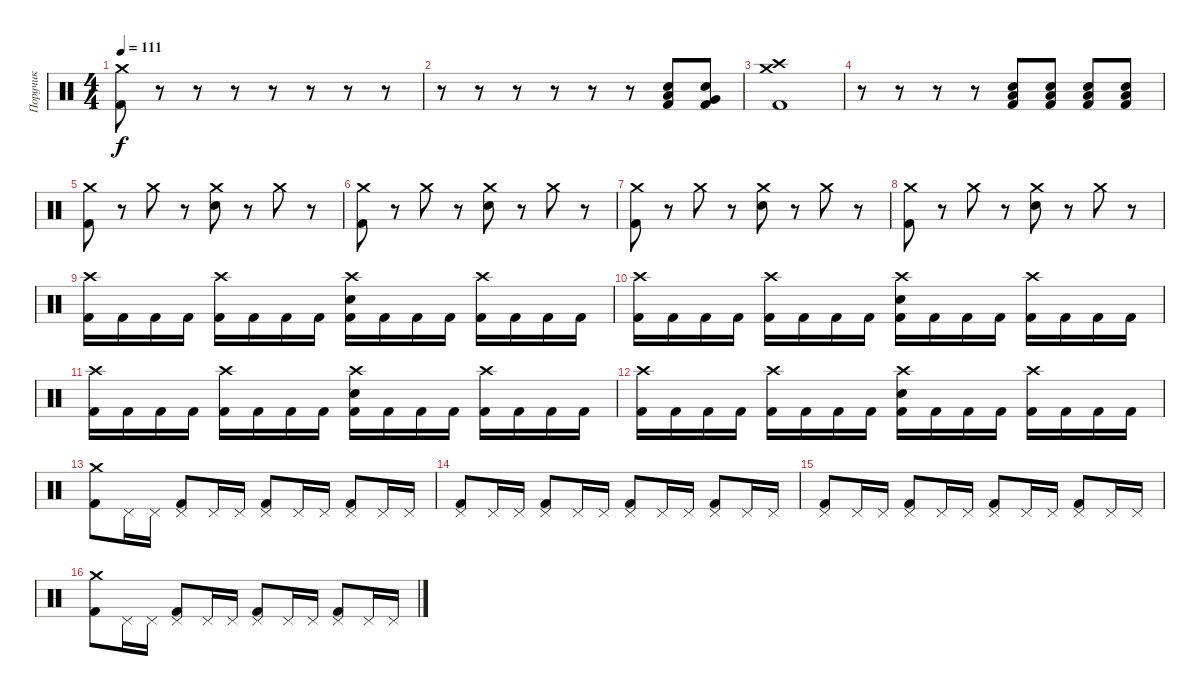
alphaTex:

\track ("Поручик" "Поручик") {instrument percussion}
\staff {score}
\articulation defaults
\ts (4 4)
\tempo 111
\clef neutral
\ks c
("Crash medium (hit)" "Kick (hit) 2").8{dy f} r.8 r.8 r.8 r.8 r.8 r.8 r.8 |
r.8 r.8 r.8 r.8 r.8 r.8 ("Electric Snare (hit)" "Low Tom (hit)" "Kick (hit) 2").8 ("Electric Snare (hit)" "Very Low Tom (hit)" "Kick (hit) 2").8 |
("Crash medium (hit)" "Crash high (hit)" "Kick (hit) 2").1 |
r.8 r.8 r.8 r.8 ("Electric Snare (hit)" "Low Tom (hit)" "Kick (hit) 2").8 ("Electric Snare (hit)" "Low Tom (hit)" "Kick (hit) 2").8 ("Electric Snare (hit)" "Low Tom (hit)" "Kick (hit) 2").8 ("Electric Snare (hit)" "Low Tom (hit)" "Kick (hit) 2").8 |
("Crash medium (hit)" "Kick (hit) 2").8 r.8 "Crash medium (hit)".8 r.8 ("Crash medium (hit)" "Electric Snare (hit)").8 r.8 "Crash medium (hit)".8 r.8 |
("Crash medium (hit)" "Kick (hit) 2").8 r.8 "Crash medium (hit)".8 r.8 ("Crash medium (hit)" "Electric Snare (hit)").8 r.8 "Crash medium (hit)".8 r.8 |
("Crash medium (hit)" "Kick (hit) 2").8 r.8 "Crash medium (hit)".8 r.8 ("Crash medium (hit)" "Electric Snare (hit)").8 r.8 "Crash medium (hit)".8 r.8 |
("Crash medium (hit)" "Kick (hit) 2").8 r.8 "Crash medium (hit)".8 r.8 ("Crash medium (hit)" "Electric Snare (hit)").8 r.8 "Crash medium (hit)".8 r.8 |
("Crash high (hit)" "Kick (hit) 2").16 "Kick (hit) 2".16 "Kick (hit) 2".16 "Kick (hit) 2".16 ("Crash high (hit)" "Kick (hit) 2").16 "Kick (hit) 2".16 "Kick (hit) 2".16 "Kick (hit) 2".16 ("Crash high (hit)" "Electric Snare (hit)" "Kick (hit) 2").16 "Kick (hit) 2".16 "Kick (hit) 2".16 "Kick (hit) 2".16 ("Crash high (hit)" "Kick (hit) 2").16 "Kick (hit) 2".16 "Kick (hit) 2".16 "Kick (hit) 2".16 |
("Crash high (hit)" "Kick (hit) 2").16 "Kick (hit) 2".16 "Kick (hit) 2".16 "Kick (hit) 2".16 ("Crash high (hit)" "Kick (hit) 2").16 "Kick (hit) 2".16 "Kick (hit) 2".16 "Kick (hit) 2".16 ("Crash high (hit)" "Electric Snare (hit)" "Kick (hit) 2").16 "Kick (hit) 2".16 "Kick (hit) 2".16 "Kick (hit) 2".16 ("Crash high (hit)" "Kick (hit) 2").16 "Kick (hit) 2".16 "Kick (hit) 2".16 "Kick (hit) 2".16 |
("Crash high (hit)" "Kick (hit) 2").16 "Kick (hit) 2".16 "Kick (hit) 2".16 "Kick (hit) 2".16 ("Crash high (hit)" "Kick (hit) 2").16 "Kick (hit) 2".16 "Kick (hit) 2".16 "Kick (hit) 2".16 ("Crash high (hit)" "Electric Snare (hit)" "Kick (hit) 2").16 "Kick (hit) 2".16 "Kick (hit) 2".16 "Kick (hit) 2".16 ("Crash high (hit)" "Kick (hit) 2").16 "Kick (hit) 2".16 "Kick (hit) 2".16 "Kick (hit) 2".16 |
("Crash high (hit)" "Kick (hit) 2").16 "Kick (hit) 2".16 "Kick (hit) 2".16 "Kick (hit) 2".16 ("Crash high (hit)" "Kick (hit) 2").16 "Kick (hit) 2".16 "Kick (hit) 2".16 "Kick (hit) 2".16 ("Crash high (hit)" "Electric Snare (hit)" "Kick (hit) 2").16 "Kick (hit) 2".16 "Kick (hit) 2".16 "Kick (hit) 2".16 ("Crash high (hit)" "Kick (hit) 2").16 "Kick (hit) 2".16 "Kick (hit) 2".16 "Kick (hit) 2".16 |
("Crash medium (hit)" "Kick (hit) 2").8 "Pedal Hi-Hat (hit)".16 "Pedal Hi-Hat (hit)".16 ("Pedal Hi-Hat (hit)" "Kick (hit) 2").8 "Pedal Hi-Hat (hit)".16 "Pedal Hi-Hat (hit)".16 ("Pedal Hi-Hat (hit)" "Kick (hit) 2").8 "Pedal Hi-Hat (hit)".16 "Pedal Hi-Hat (hit)".16 ("Pedal Hi-Hat (hit)" "Kick (hit) 2").8 "Pedal Hi-Hat (hit)".16 "Pedal Hi-Hat (hit)".16 |
("Pedal Hi-Hat (hit)" "Kick (hit) 2").8 "Pedal Hi-Hat (hit)".16 "Pedal Hi-Hat (hit)".16 ("Pedal Hi-Hat (hit)" "Kick (hit) 2").8 "Pedal Hi-Hat (hit)".16 "Pedal Hi-Hat (hit)".16 ("Pedal Hi-Hat (hit)" "Kick (hit) 2").8 "Pedal Hi-Hat (hit)".16 "Pedal Hi-Hat (hit)".16 ("Pedal Hi-Hat (hit)" "Kick (hit) 2").8 "Pedal Hi-Hat (hit)".16 "Pedal Hi-Hat (hit)".16 |
("Pedal Hi-Hat (hit)" "Kick (hit) 2").8 "Pedal Hi-Hat (hit)".16 "Pedal Hi-Hat (hit)".16 ("Pedal Hi-Hat (hit)" "Kick (hit) 2").8 "Pedal Hi-Hat (hit)".16 "Pedal Hi-Hat (hit)".16 ("Pedal Hi-Hat (hit)" "Kick (hit) 2").8 "Pedal Hi-Hat (hit)".16 "Pedal Hi-Hat (hit)".16 ("Pedal Hi-Hat (hit)" "Kick (hit) 2").8 "Pedal Hi-Hat (hit)".16 "Pedal Hi-Hat (hit)".16 |
("Crash medium (hit)" "Kick (hit) 2").8 "Pedal Hi-Hat (hit)".16 "Pedal Hi-Hat (hit)".16 ("Pedal Hi-Hat (hit)" "Kick (hit) 2").8 "Pedal Hi-Hat (hit)".16 "Pedal Hi-Hat (hit)".16 ("Pedal Hi-Hat (hit)" "Kick (hit) 2").8 "Pedal Hi-Hat (hit)".16 "Pedal Hi-Hat (hit)".16 ("Pedal Hi-Hat (hit)" "Kick (hit) 2").8 "Pedal Hi-Hat (hit)".16 "Pedal Hi-Hat (hit)".16
